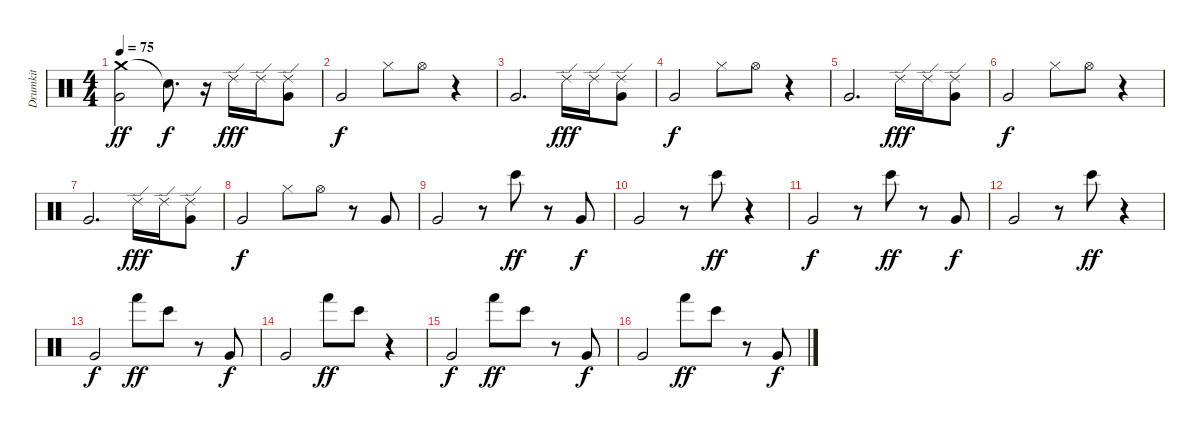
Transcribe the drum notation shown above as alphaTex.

\track ("Drumkit" "Drumkit") {instrument percussion}
\staff {score}
\articulation defaults
\ts (4 4)
\tempo 75
\clef neutral
\ks c
("Crash medium (hit)" "Very Low Tom (hit)").2{dy ff} "Snare (hit)"{t}.8{d dy f} r.16 "Ride (edge) 2".16{dy fff} "Ride (edge) 2".16 ("Ride (edge) 2" "Very Low Tom (hit)").8 |
"Very Low Tom (hit)".2{dy f} "Hi-Hat (closed)".8 "Hi-Hat (open)".8 r.4 |
"Very Low Tom (hit)".2{d} "Ride (edge) 2".16{dy fff} "Ride (edge) 2".16 ("Ride (edge) 2" "Very Low Tom (hit)").8 |
"Very Low Tom (hit)".2{dy f} "Hi-Hat (closed)".8 "Hi-Hat (open)".8 r.4 |
"Very Low Tom (hit)".2{d} "Ride (edge) 2".16{dy fff} "Ride (edge) 2".16 ("Ride (edge) 2" "Very Low Tom (hit)").8 |
"Very Low Tom (hit)".2{dy f} "Hi-Hat (closed)".8 "Hi-Hat (open)".8 r.4 |
"Very Low Tom (hit)".2{d} "Ride (edge) 2".16{dy fff} "Ride (edge) 2".16 ("Ride (edge) 2" "Very Low Tom (hit)").8 |
"Very Low Tom (hit)".2{dy f} "Hi-Hat (closed)".8 "Hi-Hat (open)".8 r.8 "Very Low Tom (hit)".8 |
"Very Low Tom (hit)".2 r.8 "Bongo High (hit)".8{dy ff} r.8 "Very Low Tom (hit)".8{dy f} |
"Very Low Tom (hit)".2 r.8 "Bongo High (hit)".8{dy ff} r.4 |
"Very Low Tom (hit)".2{dy f} r.8 "Bongo High (hit)".8{dy ff} r.8 "Very Low Tom (hit)".8{dy f} |
"Very Low Tom (hit)".2 r.8 "Bongo High (hit)".8{dy ff} r.4 |
"Very Low Tom (hit)".2{dy f} "Hand (hit)".8{dy ff} "Bongo High (hit)".8 r.8 "Very Low Tom (hit)".8{dy f} |
"Very Low Tom (hit)".2 "Hand (hit)".8{dy ff} "Bongo High (hit)".8 r.4 |
"Very Low Tom (hit)".2{dy f} "Hand (hit)".8{dy ff} "Bongo High (hit)".8 r.8 "Very Low Tom (hit)".8{dy f} |
"Very Low Tom (hit)".2 "Hand (hit)".8{dy ff} "Bongo High (hit)".8 r.8 "Very Low Tom (hit)".8{dy f}
